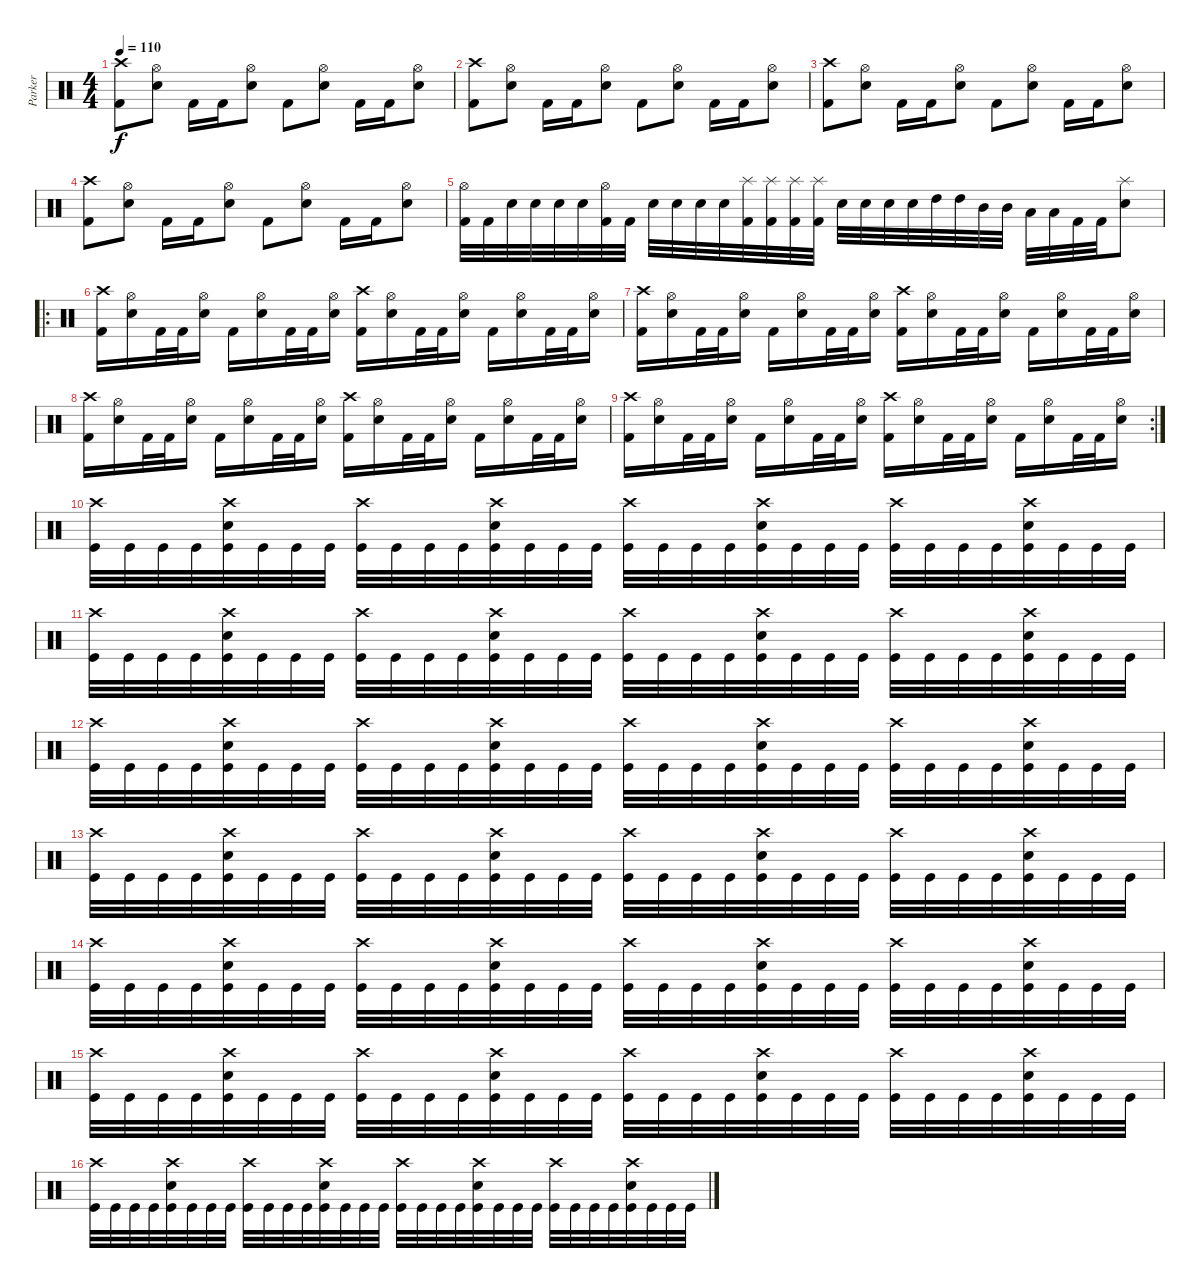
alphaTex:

\track ("Parker" "Parker") {instrument percussion}
\staff {score}
\articulation defaults
\ts (4 4)
\tempo 110
\clef neutral
\ks c
("Crash high (hit)" "Kick (hit) 2").8{dy f} ("Hi-Hat (open)" "Electric Snare (hit)").8 "Kick (hit) 2".16 "Kick (hit) 2".16 ("Hi-Hat (open)" "Electric Snare (hit)").8 "Kick (hit) 2".8 ("Hi-Hat (open)" "Electric Snare (hit)").8 "Kick (hit) 2".16 "Kick (hit) 2".16 ("Hi-Hat (open)" "Electric Snare (hit)").8 |
("Crash high (hit)" "Kick (hit) 2").8 ("Hi-Hat (open)" "Electric Snare (hit)").8 "Kick (hit) 2".16 "Kick (hit) 2".16 ("Hi-Hat (open)" "Electric Snare (hit)").8 "Kick (hit) 2".8 ("Hi-Hat (open)" "Electric Snare (hit)").8 "Kick (hit) 2".16 "Kick (hit) 2".16 ("Hi-Hat (open)" "Electric Snare (hit)").8 |
("Crash high (hit)" "Kick (hit) 2").8 ("Hi-Hat (open)" "Electric Snare (hit)").8 "Kick (hit) 2".16 "Kick (hit) 2".16 ("Hi-Hat (open)" "Electric Snare (hit)").8 "Kick (hit) 2".8 ("Hi-Hat (open)" "Electric Snare (hit)").8 "Kick (hit) 2".16 "Kick (hit) 2".16 ("Hi-Hat (open)" "Electric Snare (hit)").8 |
("Crash high (hit)" "Kick (hit) 2").8 ("Hi-Hat (open)" "Electric Snare (hit)").8 "Kick (hit) 2".16 "Kick (hit) 2".16 ("Hi-Hat (open)" "Electric Snare (hit)").8 "Kick (hit) 2".8 ("Hi-Hat (open)" "Electric Snare (hit)").8 "Kick (hit) 2".16 "Kick (hit) 2".16 ("Hi-Hat (open)" "Electric Snare (hit)").8 |
("Hi-Hat (open)" "Kick (hit) 2").32 "Kick (hit) 2".32 "Electric Snare (hit)".32 "Electric Snare (hit)".32 "Electric Snare (hit)".32 "Electric Snare (hit)".32 ("Hi-Hat (open)" "Kick (hit) 2").32 "Kick (hit) 2".32 "Electric Snare (hit)".32 "Electric Snare (hit)".32 "Electric Snare (hit)".32 "Electric Snare (hit)".32 ("Splash (hit)" "Kick (hit) 2").32 ("Splash (hit)" "Kick (hit) 2").32 ("Splash (hit)" "Kick (hit) 2").32 ("Splash (hit)" "Kick (hit) 2").32 "Electric Snare (hit)".32 "Electric Snare (hit)".32 "Electric Snare (hit)".32 "Electric Snare (hit)".32 "High Tom (hit)".32 "High Tom (hit)".32 "Mid Tom (hit)".32 "Mid Tom (hit)".32 "Low Tom (hit)".32 "Low Tom (hit)".32 "Kick (hit) 2".32 "Kick (hit) 2".32 ("Splash (hit)" "Electric Snare (hit)").8 |
\ro
("Crash high (hit)" "Kick (hit) 2").16 ("Hi-Hat (open)" "Electric Snare (hit)").16 "Kick (hit) 2".32 "Kick (hit) 2".32 ("Hi-Hat (open)" "Electric Snare (hit)").16 "Kick (hit) 2".16 ("Hi-Hat (open)" "Electric Snare (hit)").16 "Kick (hit) 2".32 "Kick (hit) 2".32 ("Hi-Hat (open)" "Electric Snare (hit)").16 ("Crash high (hit)" "Kick (hit) 2").16 ("Hi-Hat (open)" "Electric Snare (hit)").16 "Kick (hit) 2".32 "Kick (hit) 2".32 ("Hi-Hat (open)" "Electric Snare (hit)").16 "Kick (hit) 2".16 ("Hi-Hat (open)" "Electric Snare (hit)").16 "Kick (hit) 2".32 "Kick (hit) 2".32 ("Hi-Hat (open)" "Electric Snare (hit)").16 |
("Crash high (hit)" "Kick (hit) 2").16 ("Hi-Hat (open)" "Electric Snare (hit)").16 "Kick (hit) 2".32 "Kick (hit) 2".32 ("Hi-Hat (open)" "Electric Snare (hit)").16 "Kick (hit) 2".16 ("Hi-Hat (open)" "Electric Snare (hit)").16 "Kick (hit) 2".32 "Kick (hit) 2".32 ("Hi-Hat (open)" "Electric Snare (hit)").16 ("Crash high (hit)" "Kick (hit) 2").16 ("Hi-Hat (open)" "Electric Snare (hit)").16 "Kick (hit) 2".32 "Kick (hit) 2".32 ("Hi-Hat (open)" "Electric Snare (hit)").16 "Kick (hit) 2".16 ("Hi-Hat (open)" "Electric Snare (hit)").16 "Kick (hit) 2".32 "Kick (hit) 2".32 ("Hi-Hat (open)" "Electric Snare (hit)").16 |
("Crash high (hit)" "Kick (hit) 2").16 ("Hi-Hat (open)" "Electric Snare (hit)").16 "Kick (hit) 2".32 "Kick (hit) 2".32 ("Hi-Hat (open)" "Electric Snare (hit)").16 "Kick (hit) 2".16 ("Hi-Hat (open)" "Electric Snare (hit)").16 "Kick (hit) 2".32 "Kick (hit) 2".32 ("Hi-Hat (open)" "Electric Snare (hit)").16 ("Crash high (hit)" "Kick (hit) 2").16 ("Hi-Hat (open)" "Electric Snare (hit)").16 "Kick (hit) 2".32 "Kick (hit) 2".32 ("Hi-Hat (open)" "Electric Snare (hit)").16 "Kick (hit) 2".16 ("Hi-Hat (open)" "Electric Snare (hit)").16 "Kick (hit) 2".32 "Kick (hit) 2".32 ("Hi-Hat (open)" "Electric Snare (hit)").16 |
\rc 2
("Crash high (hit)" "Kick (hit) 2").16 ("Hi-Hat (open)" "Electric Snare (hit)").16 "Kick (hit) 2".32 "Kick (hit) 2".32 ("Hi-Hat (open)" "Electric Snare (hit)").16 "Kick (hit) 2".16 ("Hi-Hat (open)" "Electric Snare (hit)").16 "Kick (hit) 2".32 "Kick (hit) 2".32 ("Hi-Hat (open)" "Electric Snare (hit)").16 ("Crash high (hit)" "Kick (hit) 2").16 ("Hi-Hat (open)" "Electric Snare (hit)").16 "Kick (hit) 2".32 "Kick (hit) 2".32 ("Hi-Hat (open)" "Electric Snare (hit)").16 "Kick (hit) 2".16 ("Hi-Hat (open)" "Electric Snare (hit)").16 "Kick (hit) 2".32 "Kick (hit) 2".32 ("Hi-Hat (open)" "Electric Snare (hit)").16 |
("Crash high (hit)" "Kick (hit)").32 "Kick (hit)".32 "Kick (hit)".32 "Kick (hit)".32 ("Crash high (hit)" "Snare (hit) 2" "Kick (hit)").32 "Kick (hit)".32 "Kick (hit)".32 "Kick (hit)".32 ("Crash high (hit)" "Kick (hit)").32 "Kick (hit)".32 "Kick (hit)".32 "Kick (hit)".32 ("Crash high (hit)" "Snare (hit) 2" "Kick (hit)").32 "Kick (hit)".32 "Kick (hit)".32 "Kick (hit)".32 ("Crash high (hit)" "Kick (hit)").32 "Kick (hit)".32 "Kick (hit)".32 "Kick (hit)".32 ("Crash high (hit)" "Snare (hit) 2" "Kick (hit)").32 "Kick (hit)".32 "Kick (hit)".32 "Kick (hit)".32 ("Crash high (hit)" "Kick (hit)").32 "Kick (hit)".32 "Kick (hit)".32 "Kick (hit)".32 ("Crash high (hit)" "Snare (hit) 2" "Kick (hit)").32 "Kick (hit)".32 "Kick (hit)".32 "Kick (hit)".32 |
("Crash high (hit)" "Kick (hit)").32 "Kick (hit)".32 "Kick (hit)".32 "Kick (hit)".32 ("Crash high (hit)" "Snare (hit) 2" "Kick (hit)").32 "Kick (hit)".32 "Kick (hit)".32 "Kick (hit)".32 ("Crash high (hit)" "Kick (hit)").32 "Kick (hit)".32 "Kick (hit)".32 "Kick (hit)".32 ("Crash high (hit)" "Snare (hit) 2" "Kick (hit)").32 "Kick (hit)".32 "Kick (hit)".32 "Kick (hit)".32 ("Crash high (hit)" "Kick (hit)").32 "Kick (hit)".32 "Kick (hit)".32 "Kick (hit)".32 ("Crash high (hit)" "Snare (hit) 2" "Kick (hit)").32 "Kick (hit)".32 "Kick (hit)".32 "Kick (hit)".32 ("Crash high (hit)" "Kick (hit)").32 "Kick (hit)".32 "Kick (hit)".32 "Kick (hit)".32 ("Crash high (hit)" "Snare (hit) 2" "Kick (hit)").32 "Kick (hit)".32 "Kick (hit)".32 "Kick (hit)".32 |
("Crash high (hit)" "Kick (hit)").32 "Kick (hit)".32 "Kick (hit)".32 "Kick (hit)".32 ("Crash high (hit)" "Snare (hit) 2" "Kick (hit)").32 "Kick (hit)".32 "Kick (hit)".32 "Kick (hit)".32 ("Crash high (hit)" "Kick (hit)").32 "Kick (hit)".32 "Kick (hit)".32 "Kick (hit)".32 ("Crash high (hit)" "Snare (hit) 2" "Kick (hit)").32 "Kick (hit)".32 "Kick (hit)".32 "Kick (hit)".32 ("Crash high (hit)" "Kick (hit)").32 "Kick (hit)".32 "Kick (hit)".32 "Kick (hit)".32 ("Crash high (hit)" "Snare (hit) 2" "Kick (hit)").32 "Kick (hit)".32 "Kick (hit)".32 "Kick (hit)".32 ("Crash high (hit)" "Kick (hit)").32 "Kick (hit)".32 "Kick (hit)".32 "Kick (hit)".32 ("Crash high (hit)" "Snare (hit) 2" "Kick (hit)").32 "Kick (hit)".32 "Kick (hit)".32 "Kick (hit)".32 |
("Crash high (hit)" "Kick (hit)").32 "Kick (hit)".32 "Kick (hit)".32 "Kick (hit)".32 ("Crash high (hit)" "Snare (hit) 2" "Kick (hit)").32 "Kick (hit)".32 "Kick (hit)".32 "Kick (hit)".32 ("Crash high (hit)" "Kick (hit)").32 "Kick (hit)".32 "Kick (hit)".32 "Kick (hit)".32 ("Crash high (hit)" "Snare (hit) 2" "Kick (hit)").32 "Kick (hit)".32 "Kick (hit)".32 "Kick (hit)".32 ("Crash high (hit)" "Kick (hit)").32 "Kick (hit)".32 "Kick (hit)".32 "Kick (hit)".32 ("Crash high (hit)" "Snare (hit) 2" "Kick (hit)").32 "Kick (hit)".32 "Kick (hit)".32 "Kick (hit)".32 ("Crash high (hit)" "Kick (hit)").32 "Kick (hit)".32 "Kick (hit)".32 "Kick (hit)".32 ("Crash high (hit)" "Snare (hit) 2" "Kick (hit)").32 "Kick (hit)".32 "Kick (hit)".32 "Kick (hit)".32 |
("Crash high (hit)" "Kick (hit)").32 "Kick (hit)".32 "Kick (hit)".32 "Kick (hit)".32 ("Crash high (hit)" "Snare (hit) 2" "Kick (hit)").32 "Kick (hit)".32 "Kick (hit)".32 "Kick (hit)".32 ("Crash high (hit)" "Kick (hit)").32 "Kick (hit)".32 "Kick (hit)".32 "Kick (hit)".32 ("Crash high (hit)" "Snare (hit) 2" "Kick (hit)").32 "Kick (hit)".32 "Kick (hit)".32 "Kick (hit)".32 ("Crash high (hit)" "Kick (hit)").32 "Kick (hit)".32 "Kick (hit)".32 "Kick (hit)".32 ("Crash high (hit)" "Snare (hit) 2" "Kick (hit)").32 "Kick (hit)".32 "Kick (hit)".32 "Kick (hit)".32 ("Crash high (hit)" "Kick (hit)").32 "Kick (hit)".32 "Kick (hit)".32 "Kick (hit)".32 ("Crash high (hit)" "Snare (hit) 2" "Kick (hit)").32 "Kick (hit)".32 "Kick (hit)".32 "Kick (hit)".32 |
("Crash high (hit)" "Kick (hit)").32 "Kick (hit)".32 "Kick (hit)".32 "Kick (hit)".32 ("Crash high (hit)" "Snare (hit) 2" "Kick (hit)").32 "Kick (hit)".32 "Kick (hit)".32 "Kick (hit)".32 ("Crash high (hit)" "Kick (hit)").32 "Kick (hit)".32 "Kick (hit)".32 "Kick (hit)".32 ("Crash high (hit)" "Snare (hit) 2" "Kick (hit)").32 "Kick (hit)".32 "Kick (hit)".32 "Kick (hit)".32 ("Crash high (hit)" "Kick (hit)").32 "Kick (hit)".32 "Kick (hit)".32 "Kick (hit)".32 ("Crash high (hit)" "Snare (hit) 2" "Kick (hit)").32 "Kick (hit)".32 "Kick (hit)".32 "Kick (hit)".32 ("Crash high (hit)" "Kick (hit)").32 "Kick (hit)".32 "Kick (hit)".32 "Kick (hit)".32 ("Crash high (hit)" "Snare (hit) 2" "Kick (hit)").32 "Kick (hit)".32 "Kick (hit)".32 "Kick (hit)".32 |
("Crash high (hit)" "Kick (hit)").32 "Kick (hit)".32 "Kick (hit)".32 "Kick (hit)".32 ("Crash high (hit)" "Snare (hit) 2" "Kick (hit)").32 "Kick (hit)".32 "Kick (hit)".32 "Kick (hit)".32 ("Crash high (hit)" "Kick (hit)").32 "Kick (hit)".32 "Kick (hit)".32 "Kick (hit)".32 ("Crash high (hit)" "Snare (hit) 2" "Kick (hit)").32 "Kick (hit)".32 "Kick (hit)".32 "Kick (hit)".32 ("Crash high (hit)" "Kick (hit)").32 "Kick (hit)".32 "Kick (hit)".32 "Kick (hit)".32 ("Crash high (hit)" "Snare (hit) 2" "Kick (hit)").32 "Kick (hit)".32 "Kick (hit)".32 "Kick (hit)".32 ("Crash high (hit)" "Kick (hit)").32 "Kick (hit)".32 "Kick (hit)".32 "Kick (hit)".32 ("Crash high (hit)" "Snare (hit) 2" "Kick (hit)").32 "Kick (hit)".32 "Kick (hit)".32 "Kick (hit)".32
